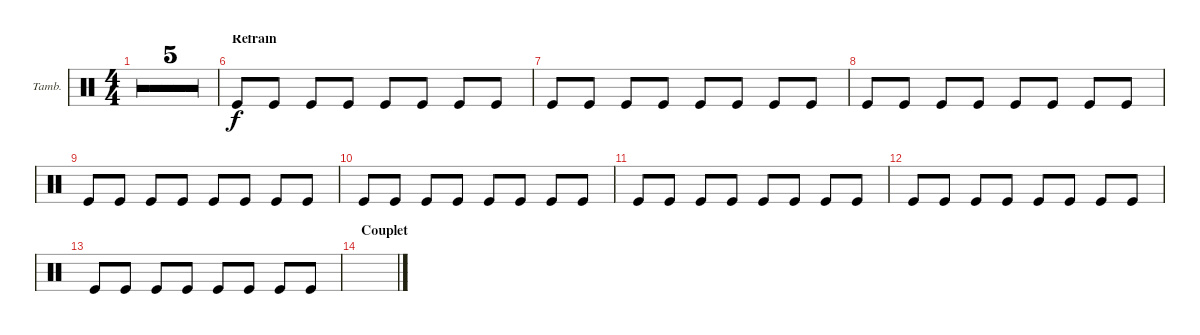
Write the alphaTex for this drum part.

\defaultSystemsLayout 4
\bracketExtendMode groupsimilarinstruments
\firstSystemTrackNameOrientation horizontal
\otherSystemsTrackNameOrientation horizontal
\track ("Tambourine" "Tamb.") {multiBarRest instrument percussion}
\staff {score}
\articulation defaults
\ts (4 4)
\tempo 120
\clef neutral
\ks c
|
|
|
|
|
\section ("" "Refrain")
"Kick (hit)".8 "Kick (hit)".8 "Kick (hit)".8 "Kick (hit)".8 "Kick (hit)".8 "Kick (hit)".8 "Kick (hit)".8 "Kick (hit)".8 |
"Kick (hit)".8 "Kick (hit)".8 "Kick (hit)".8 "Kick (hit)".8 "Kick (hit)".8 "Kick (hit)".8 "Kick (hit)".8 "Kick (hit)".8 |
"Kick (hit)".8 "Kick (hit)".8 "Kick (hit)".8 "Kick (hit)".8 "Kick (hit)".8 "Kick (hit)".8 "Kick (hit)".8 "Kick (hit)".8 |
"Kick (hit)".8 "Kick (hit)".8 "Kick (hit)".8 "Kick (hit)".8 "Kick (hit)".8 "Kick (hit)".8 "Kick (hit)".8 "Kick (hit)".8 |
"Kick (hit)".8 "Kick (hit)".8 "Kick (hit)".8 "Kick (hit)".8 "Kick (hit)".8 "Kick (hit)".8 "Kick (hit)".8 "Kick (hit)".8 |
"Kick (hit)".8 "Kick (hit)".8 "Kick (hit)".8 "Kick (hit)".8 "Kick (hit)".8 "Kick (hit)".8 "Kick (hit)".8 "Kick (hit)".8 |
"Kick (hit)".8 "Kick (hit)".8 "Kick (hit)".8 "Kick (hit)".8 "Kick (hit)".8 "Kick (hit)".8 "Kick (hit)".8 "Kick (hit)".8 |
"Kick (hit)".8 "Kick (hit)".8 "Kick (hit)".8 "Kick (hit)".8 "Kick (hit)".8 "Kick (hit)".8 "Kick (hit)".8 "Kick (hit)".8 |
\section ("" "Couplet")
